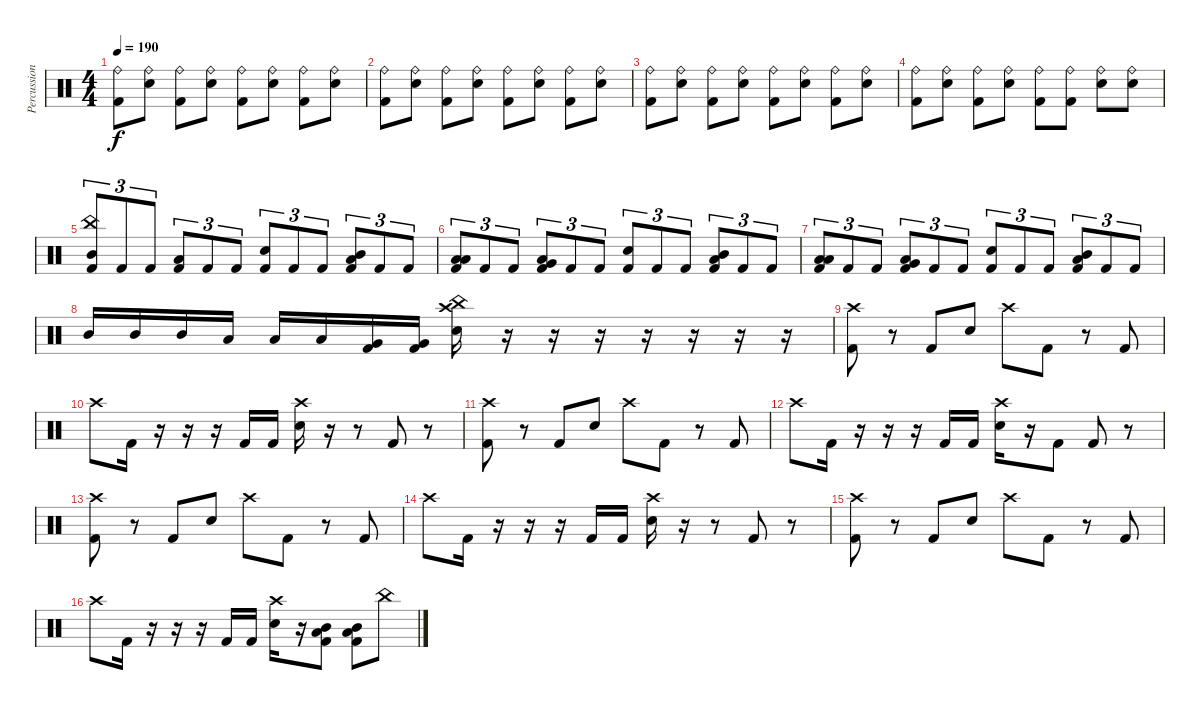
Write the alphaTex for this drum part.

\track ("Percussion" "Percussion") {instrument percussion}
\staff {score}
\articulation defaults
\ts (4 4)
\tempo 190
\clef neutral
\ks c
("Ride (bell)" "Kick (hit) 2").8{dy f} ("Ride (bell)" "Snare (hit) 2").8 ("Ride (bell)" "Kick (hit) 2").8 ("Ride (bell)" "Snare (hit) 2").8 ("Ride (bell)" "Kick (hit) 2").8 ("Ride (bell)" "Snare (hit) 2").8 ("Ride (bell)" "Kick (hit) 2").8 ("Ride (bell)" "Snare (hit) 2").8 |
("Ride (bell)" "Kick (hit) 2").8 ("Ride (bell)" "Snare (hit) 2").8 ("Ride (bell)" "Kick (hit) 2").8 ("Ride (bell)" "Snare (hit) 2").8 ("Ride (bell)" "Kick (hit) 2").8 ("Ride (bell)" "Snare (hit) 2").8 ("Ride (bell)" "Kick (hit) 2").8 ("Ride (bell)" "Snare (hit) 2").8 |
("Ride (bell)" "Kick (hit) 2").8 ("Ride (bell)" "Snare (hit) 2").8 ("Ride (bell)" "Kick (hit) 2").8 ("Ride (bell)" "Snare (hit) 2").8 ("Ride (bell)" "Kick (hit) 2").8 ("Ride (bell)" "Snare (hit) 2").8 ("Ride (bell)" "Kick (hit) 2").8 ("Ride (bell)" "Snare (hit) 2").8 |
("Ride (bell)" "Kick (hit) 2").8 ("Ride (bell)" "Snare (hit) 2").8 ("Ride (bell)" "Kick (hit) 2").8 ("Ride (bell)" "Snare (hit) 2").8 ("Ride (bell)" "Kick (hit) 2").8 ("Ride (bell)" "Kick (hit) 2").8 ("Ride (bell)" "Snare (hit) 2").8 ("Ride (bell)" "Snare (hit) 2").8 |
("China (hit)" "Mid Tom (hit)" "Kick (hit) 2").8{tu (3 2)} "Kick (hit) 2".8{tu (3 2)} "Kick (hit) 2".8{tu (3 2)} ("Low Tom (hit)" "Kick (hit) 2").8{tu (3 2)} "Kick (hit) 2".8{tu (3 2)} "Kick (hit) 2".8{tu (3 2)} ("Snare (hit) 2" "Kick (hit) 2").8{tu (3 2)} "Kick (hit) 2".8{tu (3 2)} "Kick (hit) 2".8{tu (3 2)} ("Mid Tom (hit)" "Low Tom (hit)" "Kick (hit) 2").8{tu (3 2)} "Kick (hit) 2".8{tu (3 2)} "Kick (hit) 2".8{tu (3 2)} |
("Low Tom (hit)" "Low Floor Tom (hit)" "Kick (hit) 2").8{tu (3 2)} "Kick (hit) 2".8{tu (3 2)} "Kick (hit) 2".8{tu (3 2)} ("Very Low Tom (hit)" "Low Floor Tom (hit)" "Kick (hit) 2").8{tu (3 2)} "Kick (hit) 2".8{tu (3 2)} "Kick (hit) 2".8{tu (3 2)} ("Snare (hit) 2" "Kick (hit) 2").8{tu (3 2)} "Kick (hit) 2".8{tu (3 2)} "Kick (hit) 2".8{tu (3 2)} ("Mid Tom (hit)" "Low Tom (hit)" "Kick (hit) 2").8{tu (3 2)} "Kick (hit) 2".8{tu (3 2)} "Kick (hit) 2".8{tu (3 2)} |
("Low Tom (hit)" "Low Floor Tom (hit)" "Kick (hit) 2").8{tu (3 2)} "Kick (hit) 2".8{tu (3 2)} "Kick (hit) 2".8{tu (3 2)} ("Very Low Tom (hit)" "Low Floor Tom (hit)" "Kick (hit) 2").8{tu (3 2)} "Kick (hit) 2".8{tu (3 2)} "Kick (hit) 2".8{tu (3 2)} ("Snare (hit) 2" "Kick (hit) 2").8{tu (3 2)} "Kick (hit) 2".8{tu (3 2)} "Kick (hit) 2".8{tu (3 2)} ("Mid Tom (hit)" "Low Tom (hit)" "Kick (hit) 2").8{tu (3 2)} "Kick (hit) 2".8{tu (3 2)} "Kick (hit) 2".8{tu (3 2)} |
"Mid Tom (hit)".16 "Mid Tom (hit)".16 "Mid Tom (hit)".16 "Low Tom (hit)".16 "Low Tom (hit)".16 "Low Tom (hit)".16 ("Very Low Tom (hit)" "Kick (hit) 2").16 ("Very Low Tom (hit)" "Kick (hit) 2").16 ("China (hit)" "Crash high (hit)" "Snare (hit) 2").16 r.16 r.16 r.16 r.16 r.16 r.16 r.16 |
("Crash high (hit)" "Kick (hit) 2").8 r.8 "Kick (hit) 2".8 "Snare (hit) 2".8 "Crash high (hit)".8 "Kick (hit) 2".8 r.8 "Kick (hit) 2".8 |
"Crash high (hit)".8 "Kick (hit) 2".16 r.16 r.16 r.16 "Kick (hit) 2".16 "Kick (hit) 2".16 ("Crash high (hit)" "Snare (hit) 2").16 r.16 r.8 "Kick (hit) 2".8 r.8 |
("Crash high (hit)" "Kick (hit) 2").8 r.8 "Kick (hit) 2".8 "Snare (hit) 2".8 "Crash high (hit)".8 "Kick (hit) 2".8 r.8 "Kick (hit) 2".8 |
"Crash high (hit)".8 "Kick (hit) 2".16 r.16 r.16 r.16 "Kick (hit) 2".16 "Kick (hit) 2".16 ("Crash high (hit)" "Snare (hit) 2").16 r.16 "Kick (hit) 2".8 "Kick (hit) 2".8 r.8 |
("Crash high (hit)" "Kick (hit) 2").8 r.8 "Kick (hit) 2".8 "Snare (hit) 2".8 "Crash high (hit)".8 "Kick (hit) 2".8 r.8 "Kick (hit) 2".8 |
"Crash high (hit)".8 "Kick (hit) 2".16 r.16 r.16 r.16 "Kick (hit) 2".16 "Kick (hit) 2".16 ("Crash high (hit)" "Snare (hit) 2").16 r.16 r.8 "Kick (hit) 2".8 r.8 |
("Crash high (hit)" "Kick (hit) 2").8 r.8 "Kick (hit) 2".8 "Snare (hit) 2".8 "Crash high (hit)".8 "Kick (hit) 2".8 r.8 "Kick (hit) 2".8 |
"Crash high (hit)".8 "Kick (hit) 2".16 r.16 r.16 r.16 "Kick (hit) 2".16 "Kick (hit) 2".16 ("Crash high (hit)" "Snare (hit) 2").16 r.16 ("Mid Tom (hit)" "Low Tom (hit)" "Kick (hit) 2").8 ("Mid Tom (hit)" "Low Tom (hit)" "Kick (hit) 2").8 "China (hit)".8
